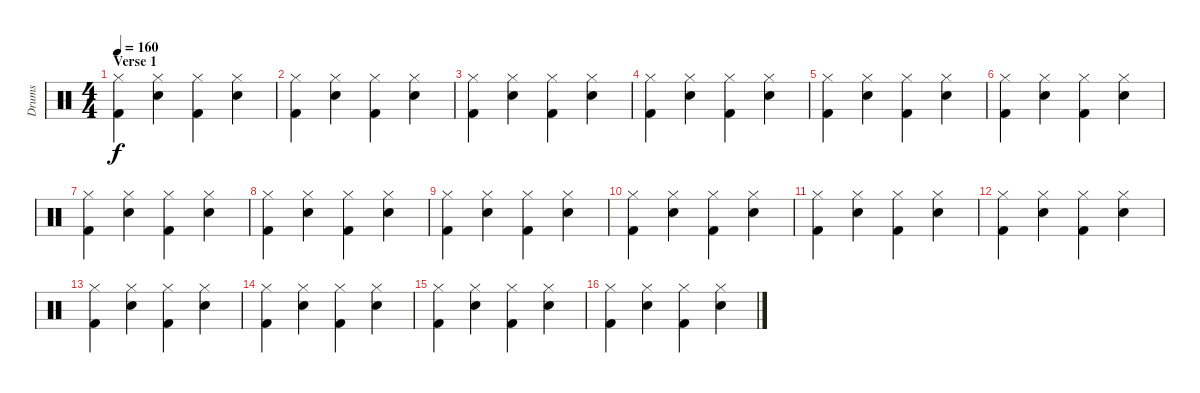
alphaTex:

\track ("Drums" "Drums") {instrument percussion}
\staff {score}
\articulation defaults
\ts (4 4)
\section ("" "Verse 1")
\tempo 160
\clef neutral
\ks c
("Kick (hit) 2" "Hi-Hat (closed)").4{dy f} ("Electric Snare (hit)" "Hi-Hat (closed)").4 ("Kick (hit) 2" "Hi-Hat (closed)").4 ("Electric Snare (hit)" "Hi-Hat (closed)").4 |
("Kick (hit) 2" "Hi-Hat (closed)").4 ("Electric Snare (hit)" "Hi-Hat (closed)").4 ("Kick (hit) 2" "Hi-Hat (closed)").4 ("Electric Snare (hit)" "Hi-Hat (closed)").4 |
("Kick (hit) 2" "Hi-Hat (closed)").4 ("Electric Snare (hit)" "Hi-Hat (closed)").4 ("Kick (hit) 2" "Hi-Hat (closed)").4 ("Electric Snare (hit)" "Hi-Hat (closed)").4 |
("Kick (hit) 2" "Hi-Hat (closed)").4 ("Electric Snare (hit)" "Hi-Hat (closed)").4 ("Kick (hit) 2" "Hi-Hat (closed)").4 ("Electric Snare (hit)" "Hi-Hat (closed)").4 |
("Kick (hit) 2" "Hi-Hat (closed)").4 ("Electric Snare (hit)" "Hi-Hat (closed)").4 ("Kick (hit) 2" "Hi-Hat (closed)").4 ("Electric Snare (hit)" "Hi-Hat (closed)").4 |
("Kick (hit) 2" "Hi-Hat (closed)").4 ("Electric Snare (hit)" "Hi-Hat (closed)").4 ("Kick (hit) 2" "Hi-Hat (closed)").4 ("Electric Snare (hit)" "Hi-Hat (closed)").4 |
("Kick (hit) 2" "Hi-Hat (closed)").4 ("Electric Snare (hit)" "Hi-Hat (closed)").4 ("Kick (hit) 2" "Hi-Hat (closed)").4 ("Electric Snare (hit)" "Hi-Hat (closed)").4 |
("Kick (hit) 2" "Hi-Hat (closed)").4 ("Electric Snare (hit)" "Hi-Hat (closed)").4 ("Kick (hit) 2" "Hi-Hat (closed)").4 ("Electric Snare (hit)" "Hi-Hat (closed)").4 |
("Kick (hit) 2" "Hi-Hat (closed)").4 ("Electric Snare (hit)" "Hi-Hat (closed)").4 ("Kick (hit) 2" "Hi-Hat (closed)").4 ("Electric Snare (hit)" "Hi-Hat (closed)").4 |
("Kick (hit) 2" "Hi-Hat (closed)").4 ("Electric Snare (hit)" "Hi-Hat (closed)").4 ("Kick (hit) 2" "Hi-Hat (closed)").4 ("Electric Snare (hit)" "Hi-Hat (closed)").4 |
("Kick (hit) 2" "Hi-Hat (closed)").4 ("Electric Snare (hit)" "Hi-Hat (closed)").4 ("Kick (hit) 2" "Hi-Hat (closed)").4 ("Electric Snare (hit)" "Hi-Hat (closed)").4 |
("Kick (hit) 2" "Hi-Hat (closed)").4 ("Electric Snare (hit)" "Hi-Hat (closed)").4 ("Kick (hit) 2" "Hi-Hat (closed)").4 ("Electric Snare (hit)" "Hi-Hat (closed)").4 |
("Kick (hit) 2" "Hi-Hat (closed)").4 ("Electric Snare (hit)" "Hi-Hat (closed)").4 ("Kick (hit) 2" "Hi-Hat (closed)").4 ("Electric Snare (hit)" "Hi-Hat (closed)").4 |
("Kick (hit) 2" "Hi-Hat (closed)").4 ("Electric Snare (hit)" "Hi-Hat (closed)").4 ("Kick (hit) 2" "Hi-Hat (closed)").4 ("Electric Snare (hit)" "Hi-Hat (closed)").4 |
("Kick (hit) 2" "Hi-Hat (closed)").4 ("Electric Snare (hit)" "Hi-Hat (closed)").4 ("Kick (hit) 2" "Hi-Hat (closed)").4 ("Electric Snare (hit)" "Hi-Hat (closed)").4 |
("Kick (hit) 2" "Hi-Hat (closed)").4 ("Electric Snare (hit)" "Hi-Hat (closed)").4 ("Kick (hit) 2" "Hi-Hat (closed)").4 ("Electric Snare (hit)" "Hi-Hat (closed)").4
